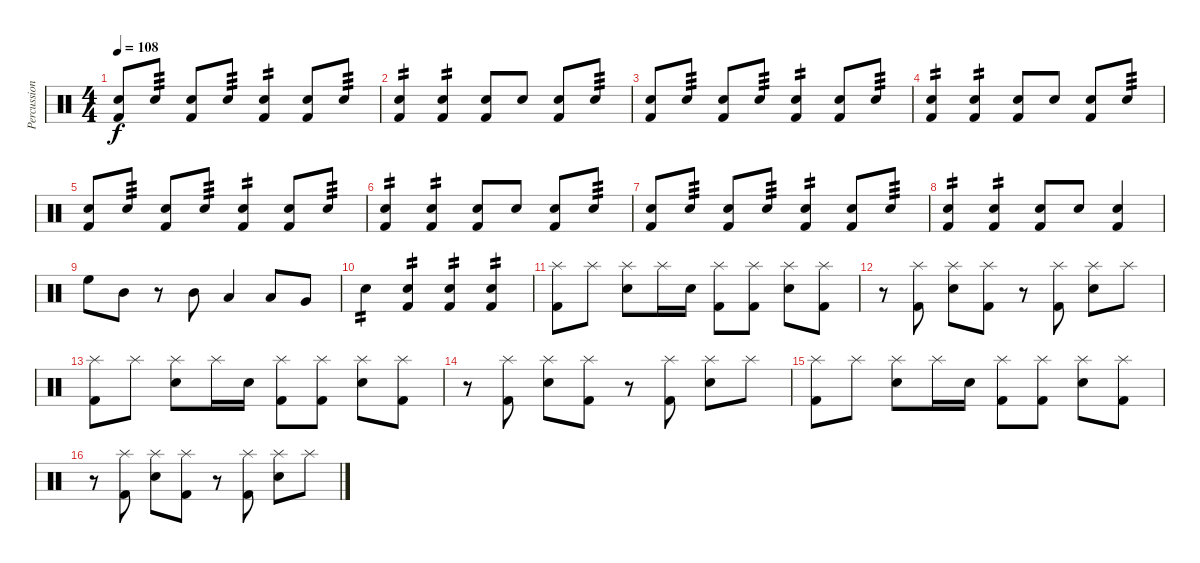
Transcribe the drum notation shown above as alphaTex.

\track ("Percussion" "Percussion") {instrument percussion}
\staff {score}
\articulation defaults
\ts (4 4)
\tempo 108
\clef neutral
\ks c
("Kick (hit) 2" "Snare (hit) 2").8{dy f} "Snare (hit) 2".8{tp 3} ("Kick (hit) 2" "Snare (hit) 2").8 "Snare (hit) 2".8{tp 3} ("Kick (hit) 2" "Snare (hit) 2").4{tp 2} ("Kick (hit) 2" "Snare (hit) 2").8 "Snare (hit) 2".8{tp 3} |
("Kick (hit) 2" "Snare (hit) 2").4{tp 2} ("Kick (hit) 2" "Snare (hit) 2").4{tp 2} ("Kick (hit) 2" "Snare (hit) 2").8 "Snare (hit) 2".8 ("Kick (hit) 2" "Snare (hit) 2").8 "Snare (hit) 2".8{tp 3} |
("Kick (hit) 2" "Snare (hit) 2").8 "Snare (hit) 2".8{tp 3} ("Kick (hit) 2" "Snare (hit) 2").8 "Snare (hit) 2".8{tp 3} ("Kick (hit) 2" "Snare (hit) 2").4{tp 2} ("Kick (hit) 2" "Snare (hit) 2").8 "Snare (hit) 2".8{tp 3} |
("Kick (hit) 2" "Snare (hit) 2").4{tp 2} ("Kick (hit) 2" "Snare (hit) 2").4{tp 2} ("Kick (hit) 2" "Snare (hit) 2").8 "Snare (hit) 2".8 ("Kick (hit) 2" "Snare (hit) 2").8 "Snare (hit) 2".8{tp 3} |
("Kick (hit) 2" "Snare (hit) 2").8 "Snare (hit) 2".8{tp 3} ("Kick (hit) 2" "Snare (hit) 2").8 "Snare (hit) 2".8{tp 3} ("Kick (hit) 2" "Snare (hit) 2").4{tp 2} ("Kick (hit) 2" "Snare (hit) 2").8 "Snare (hit) 2".8{tp 3} |
("Kick (hit) 2" "Snare (hit) 2").4{tp 2} ("Kick (hit) 2" "Snare (hit) 2").4{tp 2} ("Kick (hit) 2" "Snare (hit) 2").8 "Snare (hit) 2".8 ("Kick (hit) 2" "Snare (hit) 2").8 "Snare (hit) 2".8{tp 3} |
("Kick (hit) 2" "Snare (hit) 2").8 "Snare (hit) 2".8{tp 3} ("Kick (hit) 2" "Snare (hit) 2").8 "Snare (hit) 2".8{tp 3} ("Kick (hit) 2" "Snare (hit) 2").4{tp 2} ("Kick (hit) 2" "Snare (hit) 2").8 "Snare (hit) 2".8{tp 3} |
("Kick (hit) 2" "Snare (hit) 2").4{tp 2} ("Kick (hit) 2" "Snare (hit) 2").4{tp 2} ("Kick (hit) 2" "Snare (hit) 2").8 "Snare (hit) 2".8 ("Kick (hit) 2" "Snare (hit) 2").4 |
"High Floor Tom (hit)".8 "Mid Tom (hit)".8 r.8 "Mid Tom (hit)".8 "Low Tom (hit)".4 "Low Tom (hit)".8 "Very Low Tom (hit)".8 |
"Snare (hit) 2".4{tp 2} ("Kick (hit) 2" "Snare (hit) 2").4{tp 2} ("Kick (hit) 2" "Snare (hit) 2").4{tp 2} ("Kick (hit) 2" "Snare (hit) 2").4{tp 2} |
("Kick (hit) 2" "Splash (hit)").8 "Splash (hit)".8 ("Snare (hit) 2" "Splash (hit)").8 "Splash (hit)".16 "Snare (hit) 2".16 ("Kick (hit) 2" "Splash (hit)").8 ("Kick (hit) 2" "Splash (hit)").8 ("Snare (hit) 2" "Splash (hit)").8 ("Kick (hit) 2" "Splash (hit)").8 |
r.8 ("Kick (hit) 2" "Splash (hit)").8 ("Snare (hit) 2" "Splash (hit)").8 ("Kick (hit) 2" "Splash (hit)").8 r.8 ("Kick (hit) 2" "Splash (hit)").8 ("Snare (hit) 2" "Splash (hit)").8 "Splash (hit)".8 |
("Kick (hit) 2" "Splash (hit)").8 "Splash (hit)".8 ("Snare (hit) 2" "Splash (hit)").8 "Splash (hit)".16 "Snare (hit) 2".16 ("Kick (hit) 2" "Splash (hit)").8 ("Kick (hit) 2" "Splash (hit)").8 ("Snare (hit) 2" "Splash (hit)").8 ("Kick (hit) 2" "Splash (hit)").8 |
r.8 ("Kick (hit) 2" "Splash (hit)").8 ("Snare (hit) 2" "Splash (hit)").8 ("Kick (hit) 2" "Splash (hit)").8 r.8 ("Kick (hit) 2" "Splash (hit)").8 ("Snare (hit) 2" "Splash (hit)").8 "Splash (hit)".8 |
("Kick (hit) 2" "Splash (hit)").8 "Splash (hit)".8 ("Snare (hit) 2" "Splash (hit)").8 "Splash (hit)".16 "Snare (hit) 2".16 ("Kick (hit) 2" "Splash (hit)").8 ("Kick (hit) 2" "Splash (hit)").8 ("Snare (hit) 2" "Splash (hit)").8 ("Kick (hit) 2" "Splash (hit)").8 |
r.8 ("Kick (hit) 2" "Splash (hit)").8 ("Snare (hit) 2" "Splash (hit)").8 ("Kick (hit) 2" "Splash (hit)").8 r.8 ("Kick (hit) 2" "Splash (hit)").8 ("Snare (hit) 2" "Splash (hit)").8 "Splash (hit)".8
